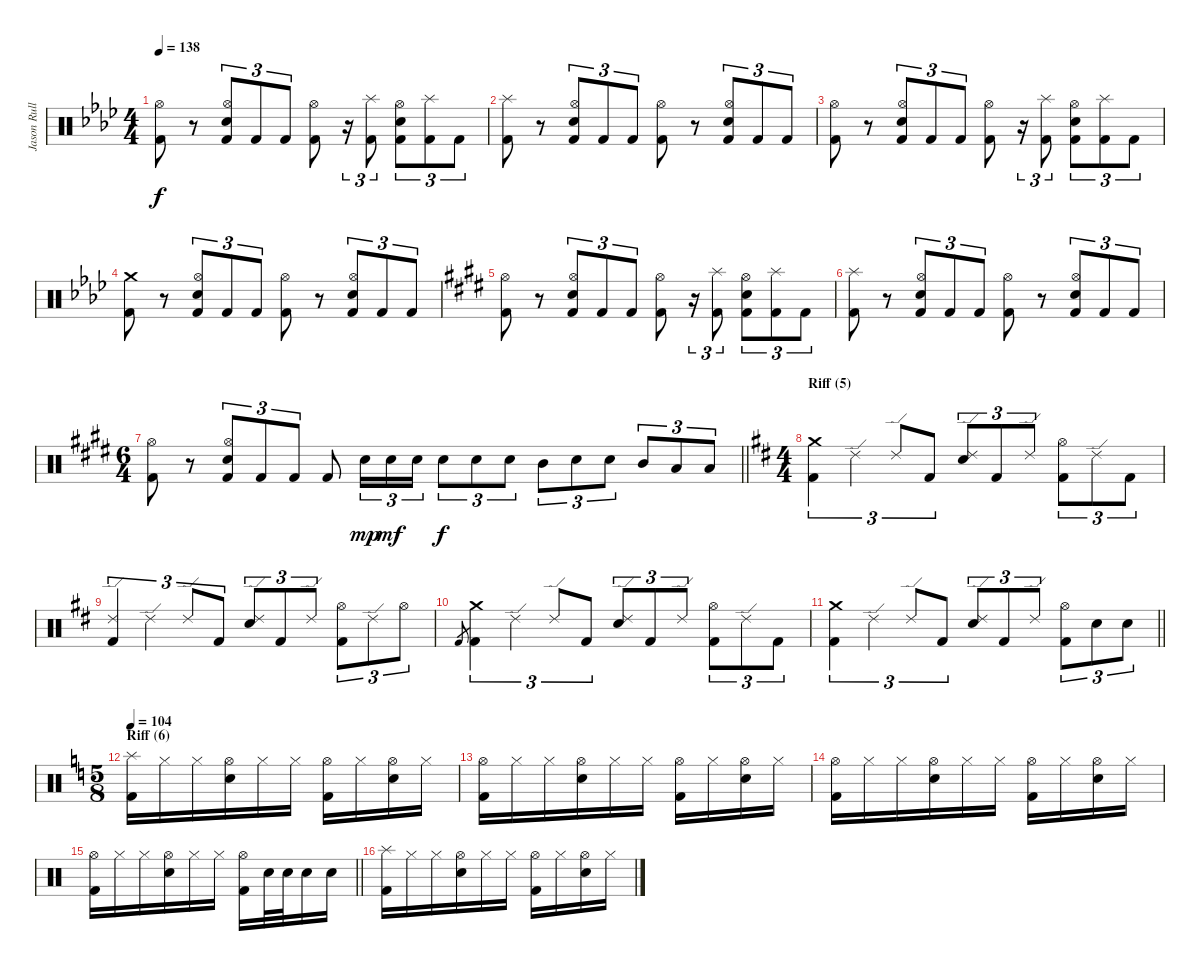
\track ("Jason Rullo (drums)" "Jason Rull") {instrument percussion}
\staff {score}
\articulation defaults
\ts (4 4)
\tempo 138
\clef neutral
\ks fminor
("Kick (hit) 2" "Hi-Hat (open)").8{dy f} r.8 ("Kick (hit) 2" "Electric Snare (hit)" "Hi-Hat (open)").8{tu (3 2)} "Kick (hit) 2".8{tu (3 2)} "Kick (hit) 2".8{tu (3 2)} ("Kick (hit) 2" "Hi-Hat (open)").8 r.16{tu (3 2)} ("Kick (hit) 2" "Splash (hit)").8{tu (3 2)} ("Electric Snare (hit)" "Kick (hit) 2" "Hi-Hat (open)").8{tu (3 2)} ("Splash (hit)" "Kick (hit) 2").8{tu (3 2)} "Kick (hit) 2".8{tu (3 2)} |
("Splash (hit)" "Kick (hit) 2").8{volume 15 balance 8} r.8 ("Hi-Hat (open)" "Electric Snare (hit)" "Kick (hit) 2").8{tu (3 2)} "Kick (hit) 2".8{tu (3 2)} "Kick (hit) 2".8{tu (3 2)} ("Hi-Hat (open)" "Kick (hit) 2").8 r.8 ("Hi-Hat (open)" "Kick (hit) 2" "Electric Snare (hit)").8{tu (3 2)} "Kick (hit) 2".8{tu (3 2)} "Kick (hit) 2".8{tu (3 2)} |
("Kick (hit) 2" "Hi-Hat (open)").8 r.8 ("Kick (hit) 2" "Electric Snare (hit)" "Hi-Hat (open)").8{tu (3 2)} "Kick (hit) 2".8{tu (3 2)} "Kick (hit) 2".8{tu (3 2)} ("Kick (hit) 2" "Hi-Hat (open)").8 r.16{tu (3 2)} ("Kick (hit) 2" "Splash (hit)").8{tu (3 2)} ("Electric Snare (hit)" "Kick (hit) 2" "Hi-Hat (open)").8{tu (3 2)} ("Splash (hit)" "Kick (hit) 2").8{tu (3 2)} "Kick (hit) 2".8{tu (3 2)} |
("Crash medium (hit)" "Kick (hit) 2").8 r.8 ("Hi-Hat (open)" "Electric Snare (hit)" "Kick (hit) 2").8{tu (3 2)} "Kick (hit) 2".8{tu (3 2)} "Kick (hit) 2".8{tu (3 2)} ("Hi-Hat (open)" "Kick (hit) 2").8 r.8 ("Hi-Hat (open)" "Kick (hit) 2" "Electric Snare (hit)").8{tu (3 2)} "Kick (hit) 2".8{tu (3 2)} "Kick (hit) 2".8{tu (3 2)} |
\ks c#minor
("Kick (hit) 2" "Hi-Hat (open)").8 r.8 ("Kick (hit) 2" "Electric Snare (hit)" "Hi-Hat (open)").8{tu (3 2)} "Kick (hit) 2".8{tu (3 2)} "Kick (hit) 2".8{tu (3 2)} ("Kick (hit) 2" "Hi-Hat (open)").8 r.16{tu (3 2)} ("Kick (hit) 2" "Splash (hit)").8{tu (3 2)} ("Electric Snare (hit)" "Kick (hit) 2" "Hi-Hat (open)").8{tu (3 2)} ("Splash (hit)" "Kick (hit) 2").8{tu (3 2)} "Kick (hit) 2".8{tu (3 2)} |
("Splash (hit)" "Kick (hit) 2").8 r.8 ("Hi-Hat (open)" "Electric Snare (hit)" "Kick (hit) 2").8{tu (3 2)} "Kick (hit) 2".8{tu (3 2)} "Kick (hit) 2".8{tu (3 2)} ("Hi-Hat (open)" "Kick (hit) 2").8 r.8 ("Hi-Hat (open)" "Kick (hit) 2" "Electric Snare (hit)").8{tu (3 2)} "Kick (hit) 2".8{tu (3 2)} "Kick (hit) 2".8{tu (3 2)} |
\ts (6 4)
\barLineRight lightlight
("Hi-Hat (open)" "Kick (hit) 2").8 r.8 ("Kick (hit) 2" "Electric Snare (hit)" "Hi-Hat (open)").8{tu (3 2)} "Kick (hit) 2".8{tu (3 2)} "Kick (hit) 2".8{tu (3 2)} "Kick (hit) 2".8 "Electric Snare (hit)".16{tu (3 2) dy mp} "Electric Snare (hit)".16{tu (3 2) dy mf} "Electric Snare (hit)".16{tu (3 2)} "Electric Snare (hit)".8{tu (3 2) dy f} "Electric Snare (hit)".8{tu (3 2)} "Electric Snare (hit)".8{tu (3 2)} "Mid Tom (hit)".8{tu (3 2)} "Electric Snare (hit)".8{tu (3 2)} "Electric Snare (hit)".8{tu (3 2)} "Mid Tom (hit)".8{tu (3 2)} "Low Tom (hit)".8{tu (3 2)} "Low Floor Tom (hit)".8{tu (3 2)} |
\ts (4 4)
\section ("" "Riff (5)")
\ks bminor
("Kick (hit) 2" "Crash medium (hit)").4{tu (3 2)} "Ride (edge) 2".4{tu (3 2)} "Ride (edge) 2".8{tu (3 2)} "Kick (hit) 2".8{tu (3 2)} ("Electric Snare (hit)" "Ride (edge) 2").8{tu (3 2)} "Kick (hit) 2".8{tu (3 2)} "Ride (edge) 2".8{tu (3 2)} ("Hi-Hat (open)" "Kick (hit) 2").8{tu (3 2)} "Ride (edge) 2".8{tu (3 2)} "Kick (hit) 2".8{tu (3 2)} |
("Ride (edge) 2" "Kick (hit) 2").4{tu (3 2)} "Ride (edge) 2".4{tu (3 2)} "Ride (edge) 2".8{tu (3 2)} "Kick (hit) 2".8{tu (3 2)} ("Electric Snare (hit)" "Ride (edge) 2").8{tu (3 2)} "Kick (hit) 2".8{tu (3 2)} "Ride (edge) 2".8{tu (3 2)} ("Hi-Hat (open)" "Kick (hit) 2").8{tu (3 2)} "Ride (edge) 2".8{tu (3 2)} "Hi-Hat (open)".8{tu (3 2)} |
"Kick (hit) 2".8{gr} ("Kick (hit) 2" "Crash medium (hit)").4{tu (3 2)} "Ride (edge) 2".4{tu (3 2)} "Ride (edge) 2".8{tu (3 2)} "Kick (hit) 2".8{tu (3 2)} ("Electric Snare (hit)" "Ride (edge) 2").8{tu (3 2)} "Kick (hit) 2".8{tu (3 2)} "Ride (edge) 2".8{tu (3 2)} ("Hi-Hat (open)" "Kick (hit) 2").8{tu (3 2)} "Ride (edge) 2".8{tu (3 2)} "Kick (hit) 2".8{tu (3 2)} |
\barLineRight lightlight
("Kick (hit) 2" "Crash medium (hit)").4{tu (3 2)} "Ride (edge) 2".4{tu (3 2)} "Ride (edge) 2".8{tu (3 2)} "Kick (hit) 2".8{tu (3 2)} ("Electric Snare (hit)" "Ride (edge) 2").8{tu (3 2)} "Kick (hit) 2".8{tu (3 2)} "Ride (edge) 2".8{tu (3 2)} ("Hi-Hat (open)" "Kick (hit) 2").8{tu (3 2)} "Electric Snare (hit)".8{tu (3 2)} "Electric Snare (hit)".8{tu (3 2)} |
\ts (5 8)
\section ("" "Riff (6)")
\tempo 104
\ks aminor
("Splash (hit)" "Kick (hit) 2").16 "Hi-Hat (closed)".16 "Hi-Hat (closed)".16 ("Hi-Hat (open)" "Electric Snare (hit)").16 "Hi-Hat (closed)".16 "Hi-Hat (closed)".16 ("Hi-Hat (open)" "Kick (hit) 2").16 "Hi-Hat (closed)".16 ("Hi-Hat (open)" "Electric Snare (hit)").16 "Hi-Hat (closed)".16 |
("Hi-Hat (open)" "Kick (hit) 2").16 "Hi-Hat (closed)".16 "Hi-Hat (closed)".16 ("Hi-Hat (open)" "Electric Snare (hit)").16 "Hi-Hat (closed)".16 "Hi-Hat (closed)".16 ("Hi-Hat (open)" "Kick (hit) 2").16 "Hi-Hat (closed)".16 ("Hi-Hat (open)" "Electric Snare (hit)").16 "Hi-Hat (closed)".16 |
("Hi-Hat (open)" "Kick (hit) 2").16 "Hi-Hat (closed)".16 "Hi-Hat (closed)".16 ("Hi-Hat (open)" "Electric Snare (hit)").16 "Hi-Hat (closed)".16 "Hi-Hat (closed)".16 ("Hi-Hat (open)" "Kick (hit) 2").16 "Hi-Hat (closed)".16 ("Hi-Hat (open)" "Electric Snare (hit)").16 "Hi-Hat (closed)".16 |
\barLineRight lightlight
("Hi-Hat (open)" "Kick (hit) 2").16 "Hi-Hat (closed)".16 "Hi-Hat (closed)".16 ("Hi-Hat (open)" "Electric Snare (hit)").16 "Hi-Hat (closed)".16 "Hi-Hat (closed)".16 ("Hi-Hat (open)" "Kick (hit) 2").16 "Electric Snare (hit)".32 "Electric Snare (hit)".32 "Electric Snare (hit)".16 "Electric Snare (hit)".16 |
("Splash (hit)" "Kick (hit) 2").16 "Hi-Hat (closed)".16 "Hi-Hat (closed)".16 ("Hi-Hat (open)" "Electric Snare (hit)").16 "Hi-Hat (closed)".16 "Hi-Hat (closed)".16 ("Hi-Hat (open)" "Kick (hit) 2").16 "Hi-Hat (closed)".16 ("Hi-Hat (open)" "Electric Snare (hit)").16 "Hi-Hat (closed)".16
